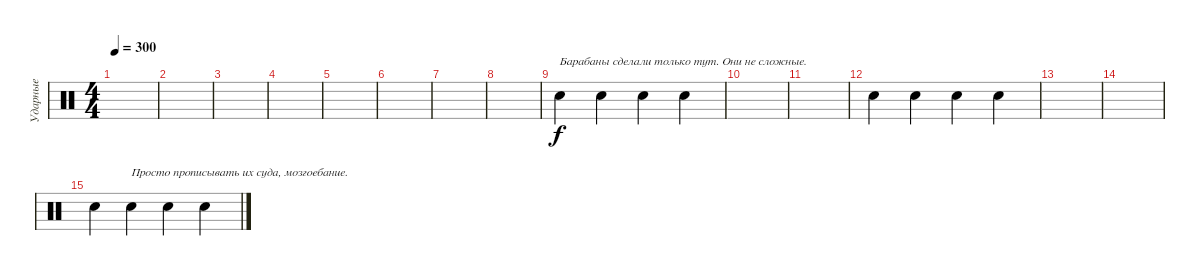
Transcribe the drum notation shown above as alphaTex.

\track ("Ударные" "Ударные") {instrument percussion}
\staff {score}
\articulation defaults
\ts (4 4)
\tempo 300
\clef neutral
\ks c
|
|
|
|
|
|
|
|
"Snare (hit) 2".4{txt "Барабаны сделали только тут. Они не сложные."} "Snare (hit) 2".4 "Snare (hit) 2".4 "Snare (hit) 2".4 |
|
|
"Snare (hit) 2".4 "Snare (hit) 2".4 "Snare (hit) 2".4 "Snare (hit) 2".4 |
|
|
"Snare (hit) 2".4 "Snare (hit) 2".4{txt "Просто прописывать их суда, мозгоебание."} "Snare (hit) 2".4 "Snare (hit) 2".4
